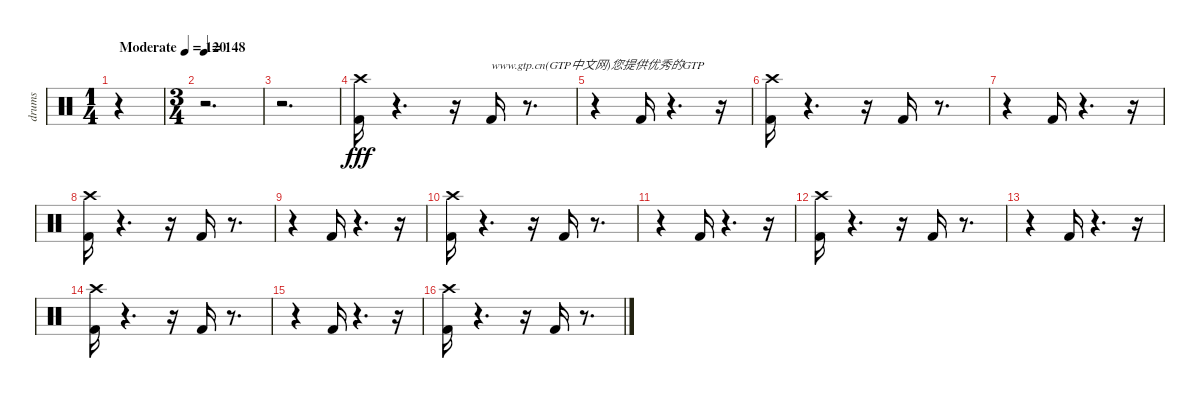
\track ("drums" "drums") {instrument percussion}
\staff {score}
\articulation defaults
\ts (1 4)
\tempo (120 "Moderate")
\clef neutral
\ks c
r.4{dy fff} |
\ts (3 4)
\tempo 148
r.2{d} |
r.2{d} |
("Crash high (hit)" "Kick (hit) 2").16 r.4{d} r.16 "Kick (hit) 2".16{txt "www.gtp.cn(GTP中文网)您提供优秀的GTP"} r.8{d} |
r.4 "Kick (hit) 2".16 r.4{d} r.16 |
("Crash high (hit)" "Kick (hit) 2").16 r.4{d} r.16 "Kick (hit) 2".16 r.8{d} |
r.4 "Kick (hit) 2".16 r.4{d} r.16 |
("Crash high (hit)" "Kick (hit) 2").16 r.4{d} r.16 "Kick (hit) 2".16 r.8{d} |
r.4 "Kick (hit) 2".16 r.4{d} r.16 |
("Crash high (hit)" "Kick (hit) 2").16 r.4{d} r.16 "Kick (hit) 2".16 r.8{d} |
r.4 "Kick (hit) 2".16 r.4{d} r.16 |
("Crash high (hit)" "Kick (hit) 2").16 r.4{d} r.16 "Kick (hit) 2".16 r.8{d} |
r.4 "Kick (hit) 2".16 r.4{d} r.16 |
("Crash high (hit)" "Kick (hit) 2").16 r.4{d} r.16 "Kick (hit) 2".16 r.8{d} |
r.4 "Kick (hit) 2".16 r.4{d} r.16 |
("Crash high (hit)" "Kick (hit) 2").16 r.4{d} r.16 "Kick (hit) 2".16 r.8{d}
